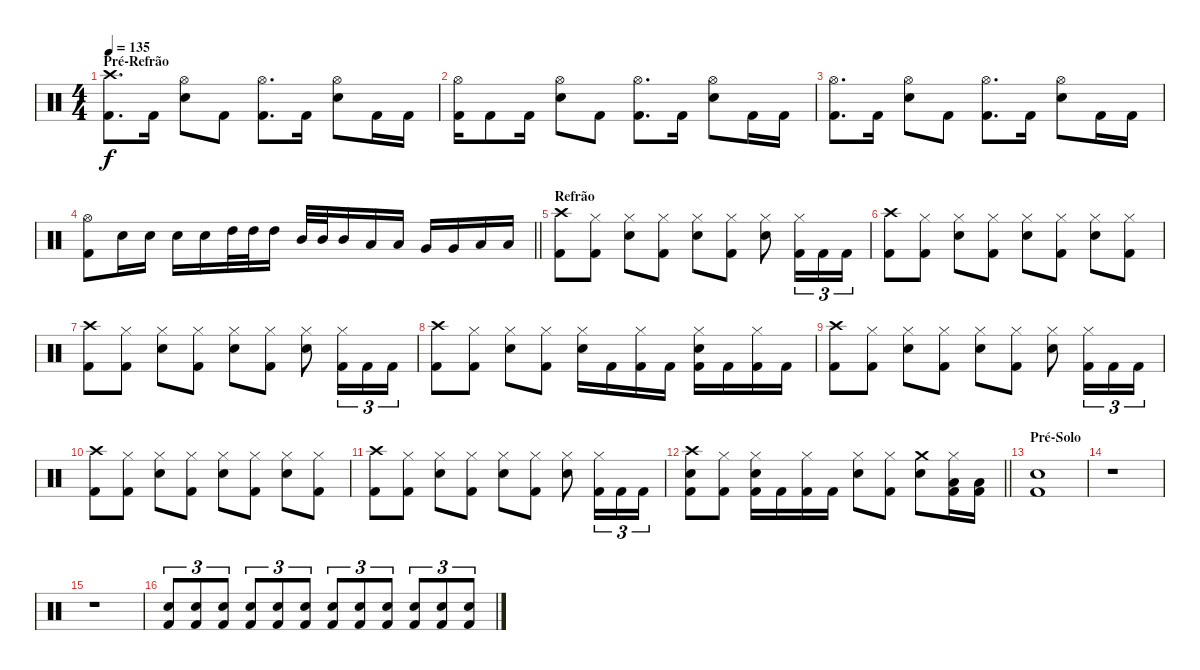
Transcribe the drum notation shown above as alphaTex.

\track "" {instrument percussion}
\staff {score}
\articulation defaults
\ts (4 4)
\section ("" "Pré-Refrão")
\tempo 135
\clef neutral
\ks c
("Crash high (hit)" "Kick (hit) 2").8{d dy f} "Kick (hit) 2".16 ("Hi-Hat (open)" "Electric Snare (hit)").8 "Kick (hit) 2".8 ("Hi-Hat (open)" "Kick (hit) 2").8{d} "Kick (hit) 2".16 ("Hi-Hat (open)" "Electric Snare (hit)").8 "Kick (hit) 2".16 "Kick (hit) 2".16 |
("Hi-Hat (open)" "Kick (hit) 2").16 "Kick (hit) 2".8 "Kick (hit) 2".16 ("Hi-Hat (open)" "Electric Snare (hit)").8 "Kick (hit) 2".8 ("Hi-Hat (open)" "Kick (hit) 2").8{d} "Kick (hit) 2".16 ("Hi-Hat (open)" "Electric Snare (hit)").8 "Kick (hit) 2".16 "Kick (hit) 2".16 |
("Hi-Hat (open)" "Kick (hit) 2").8{d} "Kick (hit) 2".16 ("Hi-Hat (open)" "Electric Snare (hit)").8 "Kick (hit) 2".8 ("Hi-Hat (open)" "Kick (hit) 2").8{d} "Kick (hit) 2".16 ("Hi-Hat (open)" "Electric Snare (hit)").8 "Kick (hit) 2".16 "Kick (hit) 2".16 |
\barLineRight lightlight
("Hi-Hat (open)" "Kick (hit) 2").8 "Electric Snare (hit)".16 "Electric Snare (hit)".16 "Electric Snare (hit)".16 "Electric Snare (hit)".16 "High Tom (hit)".32 "High Tom (hit)".32 "High Tom (hit)".16 "Mid Tom (hit)".32 "Mid Tom (hit)".32 "Mid Tom (hit)".16 "Low Tom (hit)".16 "Low Tom (hit)".16 "Very Low Tom (hit)".16 "Very Low Tom (hit)".16 "Low Floor Tom (hit)".16 "Low Floor Tom (hit)".16 |
\section ("" "Refrão")
("Crash high (hit)" "Kick (hit) 2").8 ("Hi-Hat (closed)" "Kick (hit) 2").8 ("Hi-Hat (closed)" "Electric Snare (hit)").8 ("Hi-Hat (closed)" "Kick (hit) 2").8 ("Hi-Hat (closed)" "Electric Snare (hit)").8 ("Hi-Hat (closed)" "Kick (hit) 2").8 ("Hi-Hat (closed)" "Electric Snare (hit)").8 ("Hi-Hat (closed)" "Kick (hit) 2").16{tu (3 2)} "Kick (hit) 2".16{tu (3 2)} "Kick (hit) 2".16{tu (3 2)} |
("Crash high (hit)" "Kick (hit) 2").8 ("Hi-Hat (closed)" "Kick (hit) 2").8 ("Hi-Hat (closed)" "Electric Snare (hit)").8 ("Hi-Hat (closed)" "Kick (hit) 2").8 ("Hi-Hat (closed)" "Electric Snare (hit)").8 ("Hi-Hat (closed)" "Kick (hit) 2").8 ("Hi-Hat (closed)" "Electric Snare (hit)").8 ("Hi-Hat (closed)" "Kick (hit) 2").8 |
("Crash high (hit)" "Kick (hit) 2").8 ("Hi-Hat (closed)" "Kick (hit) 2").8 ("Hi-Hat (closed)" "Electric Snare (hit)").8 ("Hi-Hat (closed)" "Kick (hit) 2").8 ("Hi-Hat (closed)" "Electric Snare (hit)").8 ("Hi-Hat (closed)" "Kick (hit) 2").8 ("Hi-Hat (closed)" "Electric Snare (hit)").8 ("Hi-Hat (closed)" "Kick (hit) 2").16{tu (3 2)} "Kick (hit) 2".16{tu (3 2)} "Kick (hit) 2".16{tu (3 2)} |
("Crash high (hit)" "Kick (hit) 2").8 ("Hi-Hat (closed)" "Kick (hit) 2").8 ("Hi-Hat (closed)" "Electric Snare (hit)").8 ("Hi-Hat (closed)" "Kick (hit) 2").8 ("Hi-Hat (closed)" "Electric Snare (hit)").16 "Kick (hit) 2".16 ("Hi-Hat (closed)" "Kick (hit) 2").16 "Kick (hit) 2".16 ("Hi-Hat (closed)" "Electric Snare (hit)" "Kick (hit) 2").16 "Kick (hit) 2".16 ("Hi-Hat (closed)" "Kick (hit) 2").16 "Kick (hit) 2".16 |
("Crash high (hit)" "Kick (hit) 2").8 ("Hi-Hat (closed)" "Kick (hit) 2").8 ("Hi-Hat (closed)" "Electric Snare (hit)").8 ("Hi-Hat (closed)" "Kick (hit) 2").8 ("Hi-Hat (closed)" "Electric Snare (hit)").8 ("Hi-Hat (closed)" "Kick (hit) 2").8 ("Hi-Hat (closed)" "Electric Snare (hit)").8 ("Hi-Hat (closed)" "Kick (hit) 2").16{tu (3 2)} "Kick (hit) 2".16{tu (3 2)} "Kick (hit) 2".16{tu (3 2)} |
("Crash high (hit)" "Kick (hit) 2").8 ("Hi-Hat (closed)" "Kick (hit) 2").8 ("Hi-Hat (closed)" "Electric Snare (hit)").8 ("Hi-Hat (closed)" "Kick (hit) 2").8 ("Hi-Hat (closed)" "Electric Snare (hit)").8 ("Hi-Hat (closed)" "Kick (hit) 2").8 ("Hi-Hat (closed)" "Electric Snare (hit)").8 ("Hi-Hat (closed)" "Kick (hit) 2").8 |
("Crash high (hit)" "Kick (hit) 2").8 ("Hi-Hat (closed)" "Kick (hit) 2").8 ("Hi-Hat (closed)" "Electric Snare (hit)").8 ("Hi-Hat (closed)" "Kick (hit) 2").8 ("Hi-Hat (closed)" "Electric Snare (hit)").8 ("Hi-Hat (closed)" "Kick (hit) 2").8 ("Hi-Hat (closed)" "Electric Snare (hit)").8 ("Hi-Hat (closed)" "Kick (hit) 2").16{tu (3 2)} "Kick (hit) 2".16{tu (3 2)} "Kick (hit) 2".16{tu (3 2)} |
\barLineRight lightlight
("Crash high (hit)" "Electric Snare (hit)" "Kick (hit) 2").8 ("Hi-Hat (closed)" "Kick (hit) 2").8 ("Hi-Hat (closed)" "Electric Snare (hit)" "Kick (hit) 2").16 "Kick (hit) 2".16 ("Hi-Hat (closed)" "Kick (hit) 2").16 "Kick (hit) 2".16 ("Hi-Hat (closed)" "Electric Snare (hit)").8 ("Hi-Hat (closed)" "Kick (hit) 2").8 ("Crash medium (hit)" "Electric Snare (hit)").8 ("Hi-Hat (closed)" "Low Tom (hit)" "Kick (hit) 2").16 ("Low Tom (hit)" "Kick (hit) 2").16 |
\section ("" "Pré-Solo")
("Electric Snare (hit)" "Kick (hit) 2").1 |
r.1 |
r.1 |
("Electric Snare (hit)" "Kick (hit) 2").8{tu (3 2)} ("Electric Snare (hit)" "Kick (hit) 2").8{tu (3 2)} ("Electric Snare (hit)" "Kick (hit) 2").8{tu (3 2)} ("Electric Snare (hit)" "Kick (hit) 2").8{tu (3 2)} ("Electric Snare (hit)" "Kick (hit) 2").8{tu (3 2)} ("Electric Snare (hit)" "Kick (hit) 2").8{tu (3 2)} ("Electric Snare (hit)" "Kick (hit) 2").8{tu (3 2)} ("Electric Snare (hit)" "Kick (hit) 2").8{tu (3 2)} ("Electric Snare (hit)" "Kick (hit) 2").8{tu (3 2)} ("Electric Snare (hit)" "Kick (hit) 2").8{tu (3 2)} ("Electric Snare (hit)" "Kick (hit) 2").8{tu (3 2)} ("Electric Snare (hit)" "Kick (hit) 2").8{tu (3 2)}
